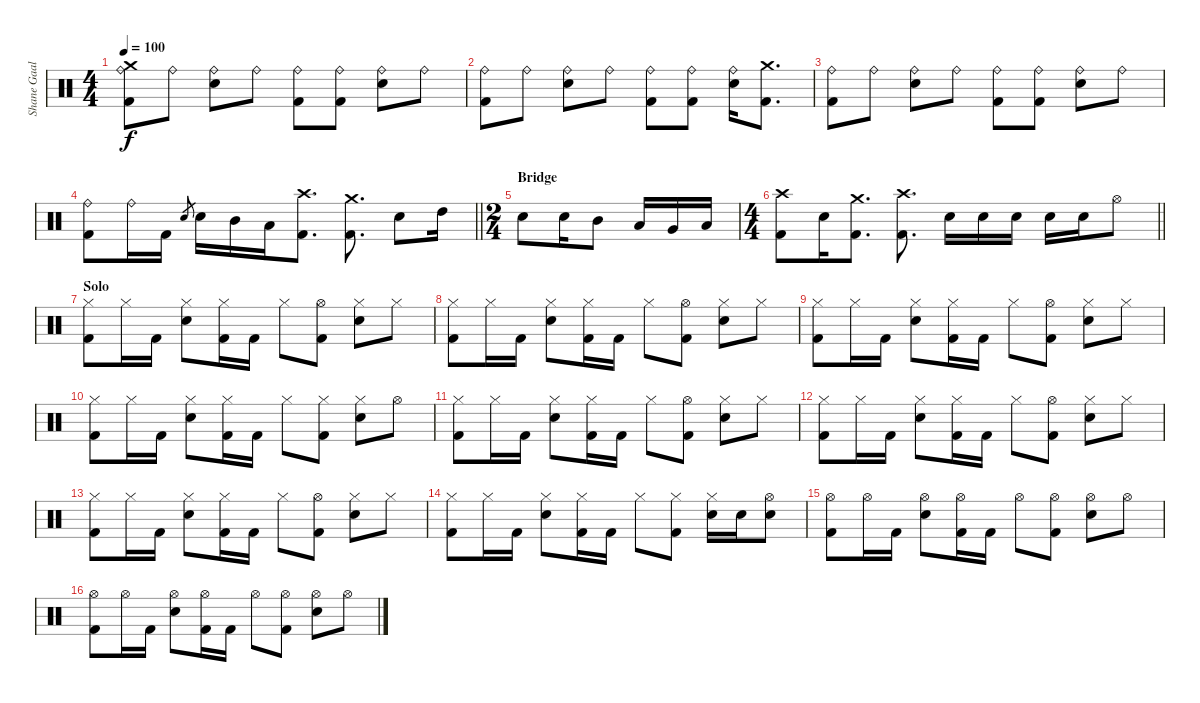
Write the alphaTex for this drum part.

\track ("Shane Gaalaas" "Shane Gaal") {instrument percussion}
\staff {score}
\articulation defaults
\ts (4 4)
\tempo 100
\clef neutral
\ks c
("Crash medium (hit)" "Ride (bell)" "Kick (hit) 2").8{dy f} "Ride (bell)".8 ("Ride (bell)" "Snare (hit) 2").8 "Ride (bell)".8 ("Ride (bell)" "Kick (hit) 2").8 ("Ride (bell)" "Kick (hit) 2").8 ("Ride (bell)" "Snare (hit) 2").8 "Ride (bell)".8 |
("Ride (bell)" "Kick (hit) 2").8 "Ride (bell)".8 ("Ride (bell)" "Snare (hit) 2").8 "Ride (bell)".8 ("Ride (bell)" "Kick (hit) 2").8 ("Ride (bell)" "Kick (hit) 2").8 ("Ride (bell)" "Snare (hit) 2").16 ("Crash medium (hit)" "Kick (hit) 2").8{d} |
("Ride (bell)" "Kick (hit) 2").8 "Ride (bell)".8 ("Ride (bell)" "Snare (hit) 2").8 "Ride (bell)".8 ("Ride (bell)" "Kick (hit) 2").8 ("Ride (bell)" "Kick (hit) 2").8 ("Ride (bell)" "Snare (hit) 2").8 "Ride (bell)".8 |
\barLineRight lightlight
("Ride (bell)" "Kick (hit) 2").8 "Ride (bell)".16 "Kick (hit) 2".16 "Snare (hit) 2".8{gr} "Snare (hit) 2".16 "Mid Tom (hit)".16 "Low Tom (hit)".16 ("Crash high (hit)" "Kick (hit) 2").8{d} ("Crash medium (hit)" "Kick (hit) 2").8{d} "Snare (hit) 2".8 "High Tom (hit)".16 |
\ts (2 4)
\section ("" "Bridge")
"Snare (hit) 2".8 "Snare (hit) 2".16 "Mid Tom (hit)".8 "Low Tom (hit)".16 "Very Low Tom (hit)".16 "Low Floor Tom (hit)".16 |
\ts (4 4)
\barLineRight lightlight
("Crash high (hit)" "Kick (hit) 2").8 "Snare (hit) 2".16 ("Crash medium (hit)" "Kick (hit) 2").8{d} ("Crash high (hit)" "Kick (hit) 2").8{d} "Snare (hit) 2".16 "Snare (hit) 2".16 "Snare (hit) 2".16 "Snare (hit) 2".16 "Snare (hit) 2".16 "Hi-Hat (open)".8 |
\section ("" "Solo")
("Hi-Hat (closed)" "Kick (hit) 2").8 "Hi-Hat (closed)".16 "Kick (hit) 2".16 ("Hi-Hat (closed)" "Snare (hit) 2").8 ("Hi-Hat (closed)" "Kick (hit) 2").16 "Kick (hit) 2".16 "Hi-Hat (closed)".8 ("Hi-Hat (open)" "Kick (hit) 2").8 ("Hi-Hat (closed)" "Snare (hit) 2").8 "Hi-Hat (closed)".8 |
("Hi-Hat (closed)" "Kick (hit) 2").8 "Hi-Hat (closed)".16 "Kick (hit) 2".16 ("Hi-Hat (closed)" "Snare (hit) 2").8 ("Hi-Hat (closed)" "Kick (hit) 2").16 "Kick (hit) 2".16 "Hi-Hat (closed)".8 ("Hi-Hat (open)" "Kick (hit) 2").8 ("Hi-Hat (closed)" "Snare (hit) 2").8 "Hi-Hat (closed)".8 |
("Hi-Hat (closed)" "Kick (hit) 2").8 "Hi-Hat (closed)".16 "Kick (hit) 2".16 ("Hi-Hat (closed)" "Snare (hit) 2").8 ("Hi-Hat (closed)" "Kick (hit) 2").16 "Kick (hit) 2".16 "Hi-Hat (closed)".8 ("Hi-Hat (open)" "Kick (hit) 2").8 ("Hi-Hat (closed)" "Snare (hit) 2").8 "Hi-Hat (closed)".8 |
("Hi-Hat (closed)" "Kick (hit) 2").8 "Hi-Hat (closed)".16 "Kick (hit) 2".16 ("Hi-Hat (closed)" "Snare (hit) 2").8 ("Hi-Hat (closed)" "Kick (hit) 2").16 "Kick (hit) 2".16 "Hi-Hat (closed)".8 ("Hi-Hat (closed)" "Kick (hit) 2").8 ("Hi-Hat (closed)" "Snare (hit) 2").8 "Hi-Hat (open)".8 |
("Hi-Hat (closed)" "Kick (hit) 2").8 "Hi-Hat (closed)".16 "Kick (hit) 2".16 ("Hi-Hat (closed)" "Snare (hit) 2").8 ("Hi-Hat (closed)" "Kick (hit) 2").16 "Kick (hit) 2".16 "Hi-Hat (closed)".8 ("Hi-Hat (open)" "Kick (hit) 2").8 ("Hi-Hat (closed)" "Snare (hit) 2").8 "Hi-Hat (closed)".8 |
("Hi-Hat (closed)" "Kick (hit) 2").8 "Hi-Hat (closed)".16 "Kick (hit) 2".16 ("Hi-Hat (closed)" "Snare (hit) 2").8 ("Hi-Hat (closed)" "Kick (hit) 2").16 "Kick (hit) 2".16 "Hi-Hat (closed)".8 ("Hi-Hat (open)" "Kick (hit) 2").8 ("Hi-Hat (closed)" "Snare (hit) 2").8 "Hi-Hat (closed)".8 |
("Hi-Hat (closed)" "Kick (hit) 2").8 "Hi-Hat (closed)".16 "Kick (hit) 2".16 ("Hi-Hat (closed)" "Snare (hit) 2").8 ("Hi-Hat (closed)" "Kick (hit) 2").16 "Kick (hit) 2".16 "Hi-Hat (closed)".8 ("Hi-Hat (open)" "Kick (hit) 2").8 ("Hi-Hat (closed)" "Snare (hit) 2").8 "Hi-Hat (closed)".8 |
("Hi-Hat (closed)" "Kick (hit) 2").8 "Hi-Hat (closed)".16 "Kick (hit) 2".16 ("Hi-Hat (closed)" "Snare (hit) 2").8 ("Hi-Hat (closed)" "Kick (hit) 2").16 "Kick (hit) 2".16 "Hi-Hat (closed)".8 ("Hi-Hat (closed)" "Kick (hit) 2").8 ("Hi-Hat (closed)" "Snare (hit) 2").16 "Snare (hit) 2".16 ("Hi-Hat (open)" "Snare (hit) 2").8 |
("Hi-Hat (open)" "Kick (hit) 2").8 "Hi-Hat (open)".16 "Kick (hit) 2".16 ("Hi-Hat (open)" "Snare (hit) 2").8 ("Hi-Hat (open)" "Kick (hit) 2").16 "Kick (hit) 2".16 "Hi-Hat (open)".8 ("Hi-Hat (open)" "Kick (hit) 2").8 ("Hi-Hat (open)" "Snare (hit) 2").8 "Hi-Hat (open)".8 |
("Hi-Hat (open)" "Kick (hit) 2").8 "Hi-Hat (open)".16 "Kick (hit) 2".16 ("Hi-Hat (open)" "Snare (hit) 2").8 ("Hi-Hat (open)" "Kick (hit) 2").16 "Kick (hit) 2".16 "Hi-Hat (open)".8 ("Hi-Hat (open)" "Kick (hit) 2").8 ("Hi-Hat (open)" "Snare (hit) 2").8 "Hi-Hat (open)".8
